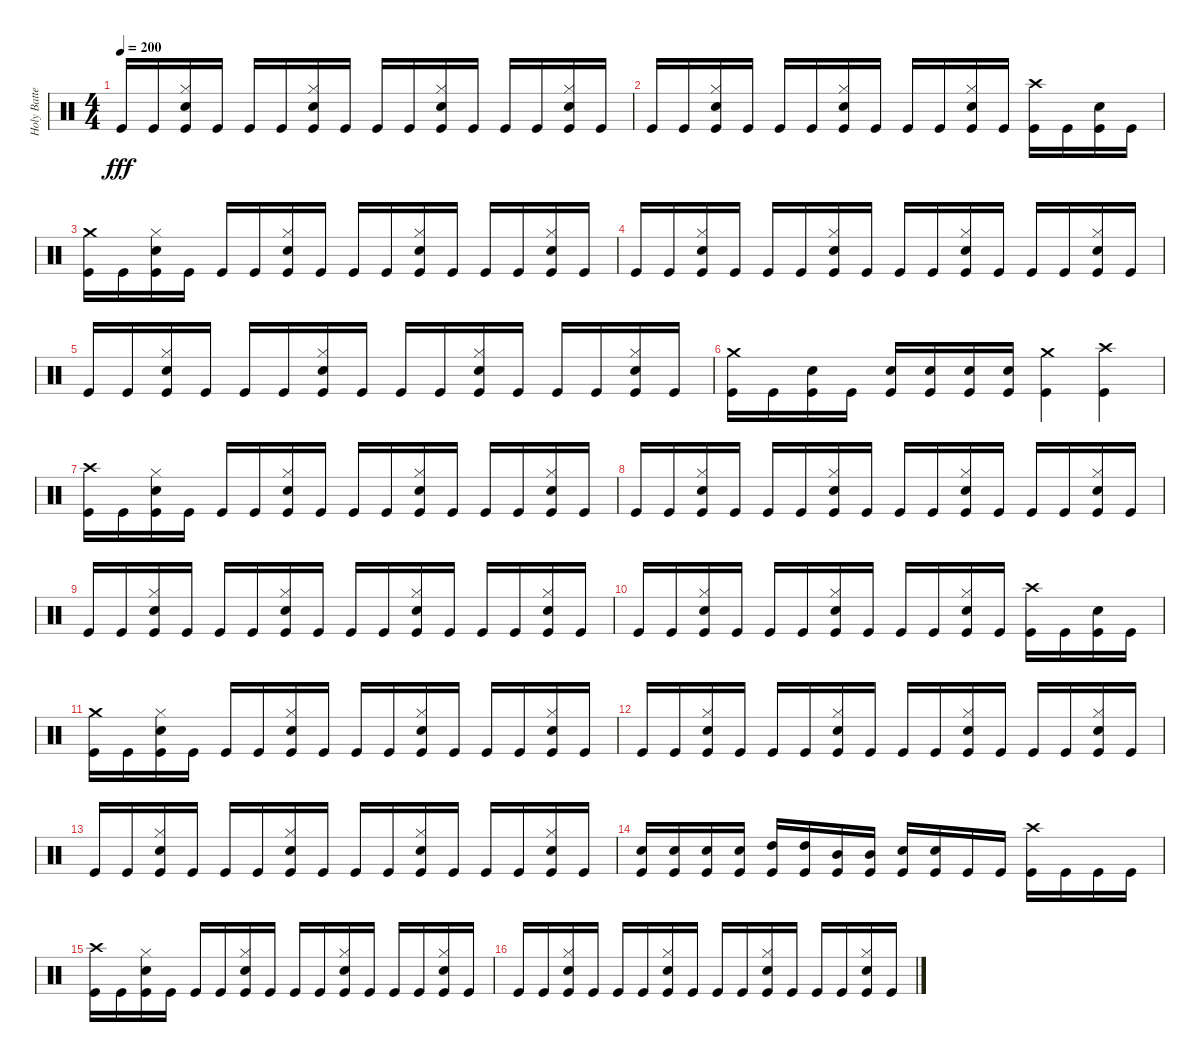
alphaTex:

\track ("Holy Batteur" "Holy Batte") {instrument percussion}
\staff {score}
\articulation defaults
\ts (4 4)
\tempo 200
\clef neutral
\ks c "Kick (hit)".16{dy fff} "Kick (hit)".16
("Hi-Hat (closed)" "Electric Snare (hit)" "Kick (hit)").16 "Kick (hit)".16 "Kick (hit)".16 "Kick (hit)".16 ("Hi-Hat (closed)" "Electric Snare (hit)" "Kick (hit)").16 "Kick (hit)".16 "Kick (hit)".16 "Kick (hit)".16 ("Hi-Hat (closed)" "Electric Snare (hit)" "Kick (hit)").16 "Kick (hit)".16 "Kick (hit)".16 "Kick (hit)".16 ("Hi-Hat (closed)" "Electric Snare (hit)" "Kick (hit)").16 "Kick (hit)".16 |
"Kick (hit)".16 "Kick (hit)".16 ("Hi-Hat (closed)" "Electric Snare (hit)" "Kick (hit)").16 "Kick (hit)".16 "Kick (hit)".16 "Kick (hit)".16 ("Hi-Hat (closed)" "Electric Snare (hit)" "Kick (hit)").16 "Kick (hit)".16 "Kick (hit)".16 "Kick (hit)".16 ("Hi-Hat (closed)" "Electric Snare (hit)" "Kick (hit)").16 "Kick (hit)".16 ("Crash high (hit)" "Kick (hit)").16 "Kick (hit)".16 ("Electric Snare (hit)" "Kick (hit)").16 "Kick (hit)".16 |
("Crash medium (hit)" "Kick (hit)").16 "Kick (hit)".16 ("Hi-Hat (closed)" "Electric Snare (hit)" "Kick (hit)").16 "Kick (hit)".16 "Kick (hit)".16 "Kick (hit)".16 ("Hi-Hat (closed)" "Electric Snare (hit)" "Kick (hit)").16 "Kick (hit)".16 "Kick (hit)".16 "Kick (hit)".16 ("Hi-Hat (closed)" "Electric Snare (hit)" "Kick (hit)").16 "Kick (hit)".16 "Kick (hit)".16 "Kick (hit)".16 ("Hi-Hat (closed)" "Electric Snare (hit)" "Kick (hit)").16 "Kick (hit)".16 |
"Kick (hit)".16 "Kick (hit)".16 ("Hi-Hat (closed)" "Electric Snare (hit)" "Kick (hit)").16 "Kick (hit)".16 "Kick (hit)".16 "Kick (hit)".16 ("Hi-Hat (closed)" "Electric Snare (hit)" "Kick (hit)").16 "Kick (hit)".16 "Kick (hit)".16 "Kick (hit)".16 ("Hi-Hat (closed)" "Electric Snare (hit)" "Kick (hit)").16 "Kick (hit)".16 "Kick (hit)".16 "Kick (hit)".16 ("Hi-Hat (closed)" "Electric Snare (hit)" "Kick (hit)").16 "Kick (hit)".16 |
"Kick (hit)".16 "Kick (hit)".16 ("Hi-Hat (closed)" "Electric Snare (hit)" "Kick (hit)").16 "Kick (hit)".16 "Kick (hit)".16 "Kick (hit)".16 ("Hi-Hat (closed)" "Electric Snare (hit)" "Kick (hit)").16 "Kick (hit)".16 "Kick (hit)".16 "Kick (hit)".16 ("Hi-Hat (closed)" "Electric Snare (hit)" "Kick (hit)").16 "Kick (hit)".16 "Kick (hit)".16 "Kick (hit)".16 ("Hi-Hat (closed)" "Electric Snare (hit)" "Kick (hit)").16 "Kick (hit)".16 |
("Crash medium (hit)" "Kick (hit)").16 "Kick (hit)".16 ("Electric Snare (hit)" "Kick (hit)").16 "Kick (hit)".16 ("Electric Snare (hit)" "Kick (hit)").16 ("Electric Snare (hit)" "Kick (hit)").16 ("Electric Snare (hit)" "Kick (hit)").16 ("Electric Snare (hit)" "Kick (hit)").16 ("Crash medium (hit)" "Kick (hit)").4 ("Crash high (hit)" "Kick (hit)").4 |
("Crash high (hit)" "Kick (hit)").16 "Kick (hit)".16 ("Hi-Hat (closed)" "Electric Snare (hit)" "Kick (hit)").16 "Kick (hit)".16 "Kick (hit)".16 "Kick (hit)".16 ("Hi-Hat (closed)" "Electric Snare (hit)" "Kick (hit)").16 "Kick (hit)".16 "Kick (hit)".16 "Kick (hit)".16 ("Hi-Hat (closed)" "Electric Snare (hit)" "Kick (hit)").16 "Kick (hit)".16 "Kick (hit)".16 "Kick (hit)".16 ("Hi-Hat (closed)" "Electric Snare (hit)" "Kick (hit)").16 "Kick (hit)".16 |
"Kick (hit)".16 "Kick (hit)".16 ("Hi-Hat (closed)" "Electric Snare (hit)" "Kick (hit)").16 "Kick (hit)".16 "Kick (hit)".16 "Kick (hit)".16 ("Hi-Hat (closed)" "Electric Snare (hit)" "Kick (hit)").16 "Kick (hit)".16 "Kick (hit)".16 "Kick (hit)".16 ("Hi-Hat (closed)" "Electric Snare (hit)" "Kick (hit)").16 "Kick (hit)".16 "Kick (hit)".16 "Kick (hit)".16 ("Hi-Hat (closed)" "Electric Snare (hit)" "Kick (hit)").16 "Kick (hit)".16 |
"Kick (hit)".16 "Kick (hit)".16 ("Hi-Hat (closed)" "Electric Snare (hit)" "Kick (hit)").16 "Kick (hit)".16 "Kick (hit)".16 "Kick (hit)".16 ("Hi-Hat (closed)" "Electric Snare (hit)" "Kick (hit)").16 "Kick (hit)".16 "Kick (hit)".16 "Kick (hit)".16 ("Hi-Hat (closed)" "Electric Snare (hit)" "Kick (hit)").16 "Kick (hit)".16 "Kick (hit)".16 "Kick (hit)".16 ("Hi-Hat (closed)" "Electric Snare (hit)" "Kick (hit)").16 "Kick (hit)".16 |
"Kick (hit)".16 "Kick (hit)".16 ("Hi-Hat (closed)" "Electric Snare (hit)" "Kick (hit)").16 "Kick (hit)".16 "Kick (hit)".16 "Kick (hit)".16 ("Hi-Hat (closed)" "Electric Snare (hit)" "Kick (hit)").16 "Kick (hit)".16 "Kick (hit)".16 "Kick (hit)".16 ("Hi-Hat (closed)" "Electric Snare (hit)" "Kick (hit)").16 "Kick (hit)".16 ("Crash high (hit)" "Kick (hit)").16 "Kick (hit)".16 ("Electric Snare (hit)" "Kick (hit)").16 "Kick (hit)".16 |
("Crash medium (hit)" "Kick (hit)").16 "Kick (hit)".16 ("Hi-Hat (closed)" "Electric Snare (hit)" "Kick (hit)").16 "Kick (hit)".16 "Kick (hit)".16 "Kick (hit)".16 ("Hi-Hat (closed)" "Electric Snare (hit)" "Kick (hit)").16 "Kick (hit)".16 "Kick (hit)".16 "Kick (hit)".16 ("Hi-Hat (closed)" "Electric Snare (hit)" "Kick (hit)").16 "Kick (hit)".16 "Kick (hit)".16 "Kick (hit)".16 ("Hi-Hat (closed)" "Electric Snare (hit)" "Kick (hit)").16 "Kick (hit)".16 |
"Kick (hit)".16 "Kick (hit)".16 ("Hi-Hat (closed)" "Electric Snare (hit)" "Kick (hit)").16 "Kick (hit)".16 "Kick (hit)".16 "Kick (hit)".16 ("Hi-Hat (closed)" "Electric Snare (hit)" "Kick (hit)").16 "Kick (hit)".16 "Kick (hit)".16 "Kick (hit)".16 ("Hi-Hat (closed)" "Electric Snare (hit)" "Kick (hit)").16 "Kick (hit)".16 "Kick (hit)".16 "Kick (hit)".16 ("Hi-Hat (closed)" "Electric Snare (hit)" "Kick (hit)").16 "Kick (hit)".16 |
"Kick (hit)".16 "Kick (hit)".16 ("Hi-Hat (closed)" "Electric Snare (hit)" "Kick (hit)").16 "Kick (hit)".16 "Kick (hit)".16 "Kick (hit)".16 ("Hi-Hat (closed)" "Electric Snare (hit)" "Kick (hit)").16 "Kick (hit)".16 "Kick (hit)".16 "Kick (hit)".16 ("Hi-Hat (closed)" "Electric Snare (hit)" "Kick (hit)").16 "Kick (hit)".16 "Kick (hit)".16 "Kick (hit)".16 ("Hi-Hat (closed)" "Electric Snare (hit)" "Kick (hit)").16 "Kick (hit)".16 |
("Electric Snare (hit)" "Kick (hit)").16 ("Electric Snare (hit)" "Kick (hit)").16 ("Electric Snare (hit)" "Kick (hit)").16 ("Electric Snare (hit)" "Kick (hit)").16 ("High Tom (hit)" "Kick (hit)").16 ("High Tom (hit)" "Kick (hit)").16 ("Mid Tom (hit)" "Kick (hit)").16 ("Mid Tom (hit)" "Kick (hit)").16 ("Electric Snare (hit)" "Kick (hit)").16 ("Electric Snare (hit)" "Kick (hit)").16 "Kick (hit)".16 "Kick (hit)".16 ("Crash high (hit)" "Kick (hit)").16 "Kick (hit)".16 "Kick (hit)".16 "Kick (hit)".16 |
("Crash high (hit)" "Kick (hit)").16 "Kick (hit)".16 ("Hi-Hat (closed)" "Electric Snare (hit)" "Kick (hit)").16 "Kick (hit)".16 "Kick (hit)".16 "Kick (hit)".16 ("Hi-Hat (closed)" "Electric Snare (hit)" "Kick (hit)").16 "Kick (hit)".16 "Kick (hit)".16 "Kick (hit)".16 ("Hi-Hat (closed)" "Electric Snare (hit)" "Kick (hit)").16 "Kick (hit)".16 "Kick (hit)".16 "Kick (hit)".16 ("Hi-Hat (closed)" "Electric Snare (hit)" "Kick (hit)").16 "Kick (hit)".16 |
"Kick (hit)".16 "Kick (hit)".16 ("Hi-Hat (closed)" "Electric Snare (hit)" "Kick (hit)").16 "Kick (hit)".16 "Kick (hit)".16 "Kick (hit)".16 ("Hi-Hat (closed)" "Electric Snare (hit)" "Kick (hit)").16 "Kick (hit)".16 "Kick (hit)".16 "Kick (hit)".16 ("Hi-Hat (closed)" "Electric Snare (hit)" "Kick (hit)").16 "Kick (hit)".16 "Kick (hit)".16 "Kick (hit)".16 ("Hi-Hat (closed)" "Electric Snare (hit)" "Kick (hit)").16 "Kick (hit)".16
